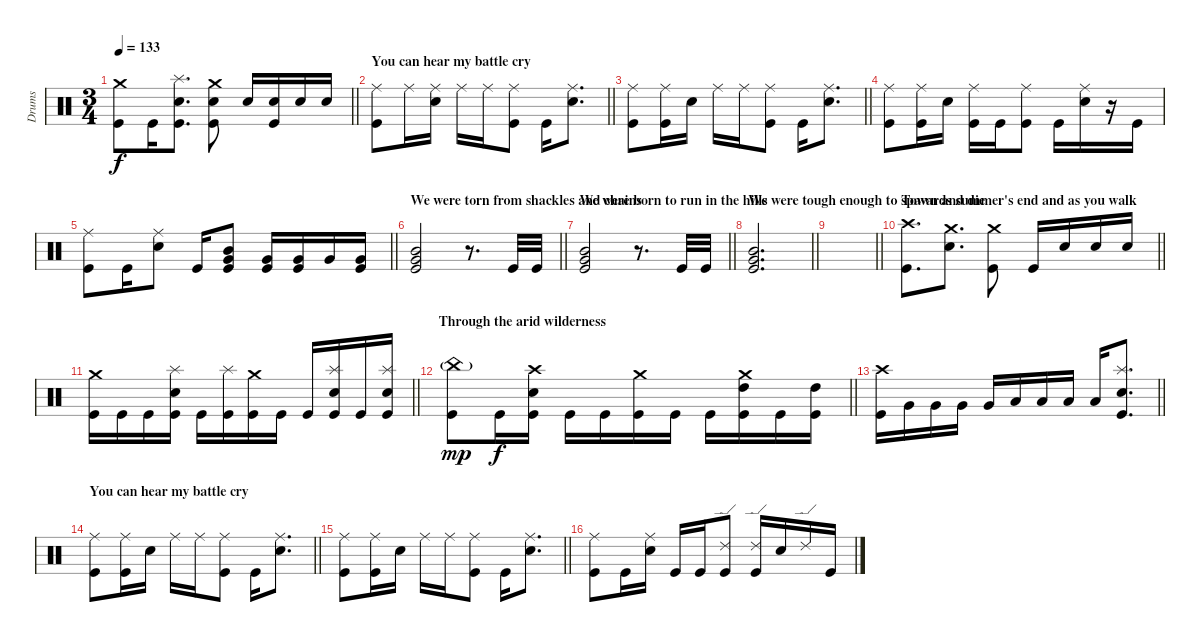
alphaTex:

\track ("Drums" "Drums") {instrument percussion}
\staff {score}
\articulation defaults
\ts (3 4)
\tempo 133
\clef neutral
\barLineRight lightlight
\ks c
("Crash medium (hit)" "Kick (hit)").8{dy f} "Kick (hit)".16 ("Splash (hit)" "Snare (hit) 2" "Kick (hit)").8{d} ("Crash medium (hit)" "Snare (hit) 2" "Kick (hit)").8 "Snare (hit) 2".16 ("Snare (hit) 2" "Kick (hit)").16 "Snare (hit) 2".16 "Snare (hit) 2".16 |
\section ("" "You can hear my battle cry ")
\barLineRight lightlight
("Ride (middle)" "Kick (hit)").8 "Ride (middle)".16 ("Ride (middle)" "Snare (hit) 2").16 "Ride (middle)".16 "Ride (middle)".16 ("Ride (middle)" "Kick (hit)").8 "Kick (hit)".16 ("Ride (middle)" "Snare (hit) 2").8{d} |
\barLineRight lightlight
("Ride (middle)" "Kick (hit)").8 ("Ride (middle)" "Kick (hit)").16 "Snare (hit) 2".16 "Ride (middle)".16 "Ride (middle)".16 ("Ride (middle)" "Kick (hit)").8 "Kick (hit)".16 ("Ride (middle)" "Snare (hit) 2").8{d} |
("Ride (middle)" "Kick (hit)").8 ("Ride (middle)" "Kick (hit)").16 "Snare (hit) 2".16 ("Ride (middle)" "Kick (hit)").16 "Kick (hit)".16 ("Ride (middle)" "Kick (hit)").8 "Kick (hit)".16 ("Ride (middle)" "Snare (hit) 2").16 r.16 "Kick (hit)".16 |
\barLineRight lightlight
("Ride (middle)" "Kick (hit)").8 "Kick (hit)".16 ("Ride (middle)" "Snare (hit) 2").8 "Kick (hit)".16 ("Mid Tom (hit)" "Very Low Tom (hit)" "Kick (hit)").8 ("Very Low Tom (hit)" "Kick (hit)").16 ("Very Low Tom (hit)" "Kick (hit)").16 "Very Low Tom (hit)".16 ("Very Low Tom (hit)" "Kick (hit)").16 |
\section ("" "We were torn from shackles and chains ")
\barLineRight lightlight
("Mid Tom (hit)" "Very Low Tom (hit)" "Kick (hit)").2 r.8{d} "Kick (hit)".32 "Kick (hit)".32 |
\section ("" "We were born to run in the hills")
\barLineRight lightlight
("Mid Tom (hit)" "Very Low Tom (hit)" "Kick (hit)").2 r.8{d} "Kick (hit)".32 "Kick (hit)".32 |
\section ("" "We were tough enough to spawn and die")
\barLineRight lightlight
("Mid Tom (hit)" "Very Low Tom (hit)" "Kick (hit)").2{d} |
\barLineRight lightlight
|
\section ("" "Towards summer's end and as you walk ")
\barLineRight lightlight
("Crash high (hit)" "Kick (hit)").8{d} ("Crash medium (hit)" "Snare (hit) 2").8{d} ("Crash medium (hit)" "Kick (hit)").8 "Kick (hit)".16 "Snare (hit) 2".16 "Snare (hit) 2".16 "Snare (hit) 2".16 |
\barLineRight lightlight
("Crash medium (hit)" "Kick (hit)").16 "Kick (hit)".16 "Kick (hit)".16 ("Splash (hit)" "Snare (hit) 2" "Kick (hit)").16 "Kick (hit)".16 ("Splash (hit)" "Kick (hit)").16 ("Crash medium (hit)" "Kick (hit)").16 "Kick (hit)".16 "Kick (hit)".16 ("Splash (hit)" "Snare (hit) 2" "Kick (hit)").16 "Kick (hit)".16 ("Splash (hit)" "Snare (hit) 2" "Kick (hit)").16 |
\section ("" "Through the arid wilderness  ")
\barLineRight lightlight
("China (hit)"{g} "Kick (hit)").8{dy mp} "Kick (hit)".16{dy f} ("Crash high (hit)" "Snare (hit) 2" "Kick (hit)").16 "Kick (hit)".16 "Kick (hit)".16 ("Crash medium (hit)" "Kick (hit)").16 "Kick (hit)".16 "Kick (hit)".16 ("Crash medium (hit)" "High Tom (hit)" "Kick (hit)").16 "Kick (hit)".16 ("High Tom (hit)" "Kick (hit)").16 |
\barLineRight lightlight
("Crash high (hit)" "Kick (hit)").16 "Very Low Tom (hit)".16 "Very Low Tom (hit)".16 "Very Low Tom (hit)".16 "Very Low Tom (hit)".16 "Low Floor Tom (hit)".16 "Low Floor Tom (hit)".16 "Low Floor Tom (hit)".16 "Low Floor Tom (hit)".16 ("Splash (hit)" "Snare (hit) 2" "Kick (hit)").8{d} |
\section ("" "You can hear my battle cry")
\barLineRight lightlight
("Ride (middle)" "Kick (hit)").8 ("Ride (middle)" "Kick (hit)").16 "Snare (hit) 2".16 "Ride (middle)".16 "Ride (middle)".16 ("Ride (middle)" "Kick (hit)").8 "Kick (hit)".16 ("Ride (middle)" "Snare (hit) 2").8{d} |
\barLineRight lightlight
("Ride (middle)" "Kick (hit)").8 ("Ride (middle)" "Kick (hit)").16 "Snare (hit) 2".16 "Ride (middle)".16 "Ride (middle)".16 ("Ride (middle)" "Kick (hit)").8 "Kick (hit)".16 ("Ride (middle)" "Snare (hit) 2").8{d} |
("Ride (middle)" "Kick (hit)").8 "Kick (hit)".16 ("Ride (middle)" "Snare (hit) 2").16 "Kick (hit)".16 "Kick (hit)".16 ("Ride (edge) 2" "Kick (hit)").8 ("Ride (edge) 2" "Kick (hit)").16 "Snare (hit) 2".16 "Ride (edge) 2".16 "Kick (hit)".16
